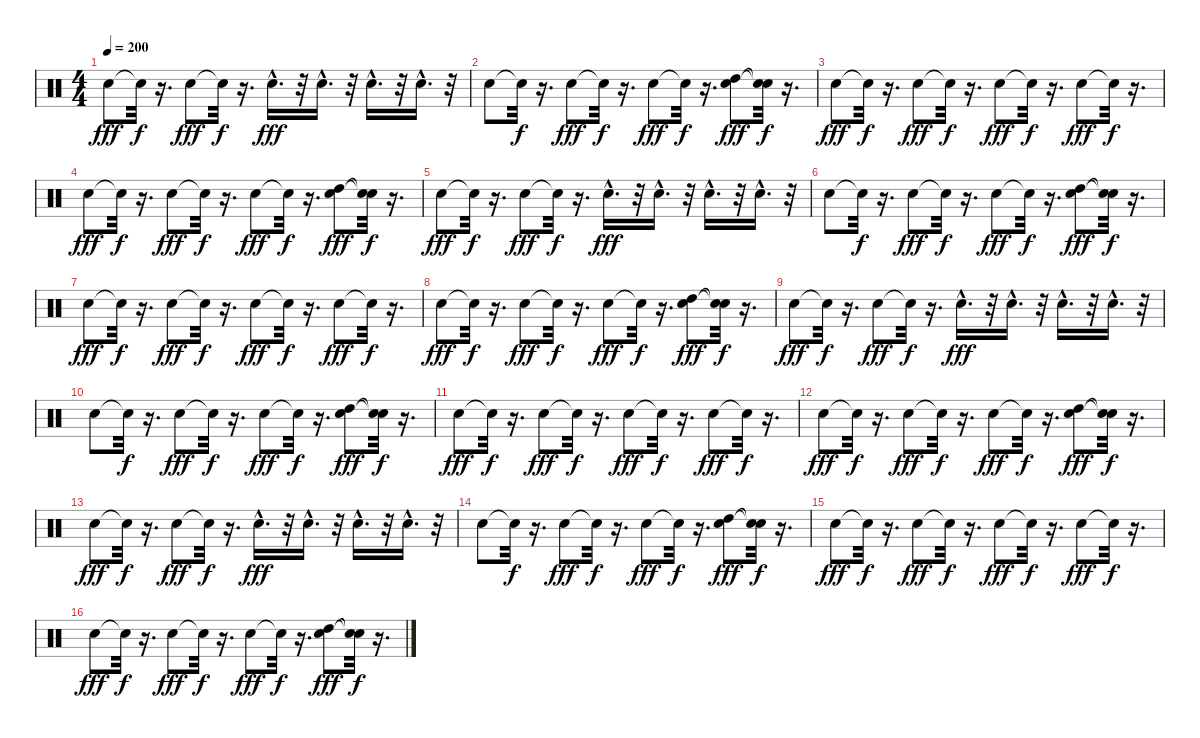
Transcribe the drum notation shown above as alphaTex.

\track "" {instrument percussion}
\staff {score}
\articulation defaults
\ts (4 4)
\tempo 200
\clef neutral
\ks c "Snare (hit) 2".8{dy fff} "Snare (hit)"{t}.32{dy f}
r.16{d} "Snare (hit) 2".8{dy fff} "Snare (hit)"{t}.32{dy f} r.16{d} "Snare (hit) 2"{hac}.16{d dy fff} r.32 "Snare (hit) 2"{hac}.16{d} r.32 "Snare (hit) 2"{hac}.16{d} r.32 "Snare (hit) 2"{hac}.16{d} r.32 |
"Snare (hit) 2".8 "Snare (hit)"{t}.32{dy f} r.16{d} "Snare (hit) 2".8{dy fff} "Snare (hit)"{t}.32{dy f} r.16{d} "Snare (hit) 2".8{dy fff} "Snare (hit)"{t}.32{dy f} r.16{d} ("Snare (hit) 2" "High Tom (hit)").8{dy fff} ("Snare (hit)"{t} "Snare (hit)"{t}).32{dy f} r.16{d} |
"Snare (hit) 2".8{dy fff} "Snare (hit)"{t}.32{dy f} r.16{d} "Snare (hit) 2".8{dy fff} "Snare (hit)"{t}.32{dy f} r.16{d} "Snare (hit) 2".8{dy fff} "Snare (hit)"{t}.32{dy f} r.16{d} "Snare (hit) 2".8{dy fff} "Snare (hit)"{t}.32{dy f} r.16{d} |
"Snare (hit) 2".8{dy fff} "Snare (hit)"{t}.32{dy f} r.16{d} "Snare (hit) 2".8{dy fff} "Snare (hit)"{t}.32{dy f} r.16{d} "Snare (hit) 2".8{dy fff} "Snare (hit)"{t}.32{dy f} r.16{d} ("Snare (hit) 2" "High Tom (hit)").8{dy fff} ("Snare (hit)"{t} "Snare (hit)"{t}).32{dy f} r.16{d} |
"Snare (hit) 2".8{dy fff} "Snare (hit)"{t}.32{dy f} r.16{d} "Snare (hit) 2".8{dy fff} "Snare (hit)"{t}.32{dy f} r.16{d} "Snare (hit) 2"{hac}.16{d dy fff} r.32 "Snare (hit) 2"{hac}.16{d} r.32 "Snare (hit) 2"{hac}.16{d} r.32 "Snare (hit) 2"{hac}.16{d} r.32 |
"Snare (hit) 2".8 "Snare (hit)"{t}.32{dy f} r.16{d} "Snare (hit) 2".8{dy fff} "Snare (hit)"{t}.32{dy f} r.16{d} "Snare (hit) 2".8{dy fff} "Snare (hit)"{t}.32{dy f} r.16{d} ("Snare (hit) 2" "High Tom (hit)").8{dy fff} ("Snare (hit)"{t} "Snare (hit)"{t}).32{dy f} r.16{d} |
"Snare (hit) 2".8{dy fff} "Snare (hit)"{t}.32{dy f} r.16{d} "Snare (hit) 2".8{dy fff} "Snare (hit)"{t}.32{dy f} r.16{d} "Snare (hit) 2".8{dy fff} "Snare (hit)"{t}.32{dy f} r.16{d} "Snare (hit) 2".8{dy fff} "Snare (hit)"{t}.32{dy f} r.16{d} |
"Snare (hit) 2".8{dy fff} "Snare (hit)"{t}.32{dy f} r.16{d} "Snare (hit) 2".8{dy fff} "Snare (hit)"{t}.32{dy f} r.16{d} "Snare (hit) 2".8{dy fff} "Snare (hit)"{t}.32{dy f} r.16{d} ("Snare (hit) 2" "High Tom (hit)").8{dy fff} ("Snare (hit)"{t} "Snare (hit)"{t}).32{dy f} r.16{d} |
"Snare (hit) 2".8{dy fff} "Snare (hit)"{t}.32{dy f} r.16{d} "Snare (hit) 2".8{dy fff} "Snare (hit)"{t}.32{dy f} r.16{d} "Snare (hit) 2"{hac}.16{d dy fff} r.32 "Snare (hit) 2"{hac}.16{d} r.32 "Snare (hit) 2"{hac}.16{d} r.32 "Snare (hit) 2"{hac}.16{d} r.32 |
"Snare (hit) 2".8 "Snare (hit)"{t}.32{dy f} r.16{d} "Snare (hit) 2".8{dy fff} "Snare (hit)"{t}.32{dy f} r.16{d} "Snare (hit) 2".8{dy fff} "Snare (hit)"{t}.32{dy f} r.16{d} ("Snare (hit) 2" "High Tom (hit)").8{dy fff} ("Snare (hit)"{t} "Snare (hit)"{t}).32{dy f} r.16{d} |
"Snare (hit) 2".8{dy fff} "Snare (hit)"{t}.32{dy f} r.16{d} "Snare (hit) 2".8{dy fff} "Snare (hit)"{t}.32{dy f} r.16{d} "Snare (hit) 2".8{dy fff} "Snare (hit)"{t}.32{dy f} r.16{d} "Snare (hit) 2".8{dy fff} "Snare (hit)"{t}.32{dy f} r.16{d} |
"Snare (hit) 2".8{dy fff} "Snare (hit)"{t}.32{dy f} r.16{d} "Snare (hit) 2".8{dy fff} "Snare (hit)"{t}.32{dy f} r.16{d} "Snare (hit) 2".8{dy fff} "Snare (hit)"{t}.32{dy f} r.16{d} ("Snare (hit) 2" "High Tom (hit)").8{dy fff} ("Snare (hit)"{t} "Snare (hit)"{t}).32{dy f} r.16{d} |
"Snare (hit) 2".8{dy fff} "Snare (hit)"{t}.32{dy f} r.16{d} "Snare (hit) 2".8{dy fff} "Snare (hit)"{t}.32{dy f} r.16{d} "Snare (hit) 2"{hac}.16{d dy fff} r.32 "Snare (hit) 2"{hac}.16{d} r.32 "Snare (hit) 2"{hac}.16{d} r.32 "Snare (hit) 2"{hac}.16{d} r.32 |
"Snare (hit) 2".8 "Snare (hit)"{t}.32{dy f} r.16{d} "Snare (hit) 2".8{dy fff} "Snare (hit)"{t}.32{dy f} r.16{d} "Snare (hit) 2".8{dy fff} "Snare (hit)"{t}.32{dy f} r.16{d} ("Snare (hit) 2" "High Tom (hit)").8{dy fff} ("Snare (hit)"{t} "Snare (hit)"{t}).32{dy f} r.16{d} |
"Snare (hit) 2".8{dy fff} "Snare (hit)"{t}.32{dy f} r.16{d} "Snare (hit) 2".8{dy fff} "Snare (hit)"{t}.32{dy f} r.16{d} "Snare (hit) 2".8{dy fff} "Snare (hit)"{t}.32{dy f} r.16{d} "Snare (hit) 2".8{dy fff} "Snare (hit)"{t}.32{dy f} r.16{d} |
"Snare (hit) 2".8{dy fff} "Snare (hit)"{t}.32{dy f} r.16{d} "Snare (hit) 2".8{dy fff} "Snare (hit)"{t}.32{dy f} r.16{d} "Snare (hit) 2".8{dy fff} "Snare (hit)"{t}.32{dy f} r.16{d} ("Snare (hit) 2" "High Tom (hit)").8{dy fff} ("Snare (hit)"{t} "Snare (hit)"{t}).32{dy f} r.16{d}
